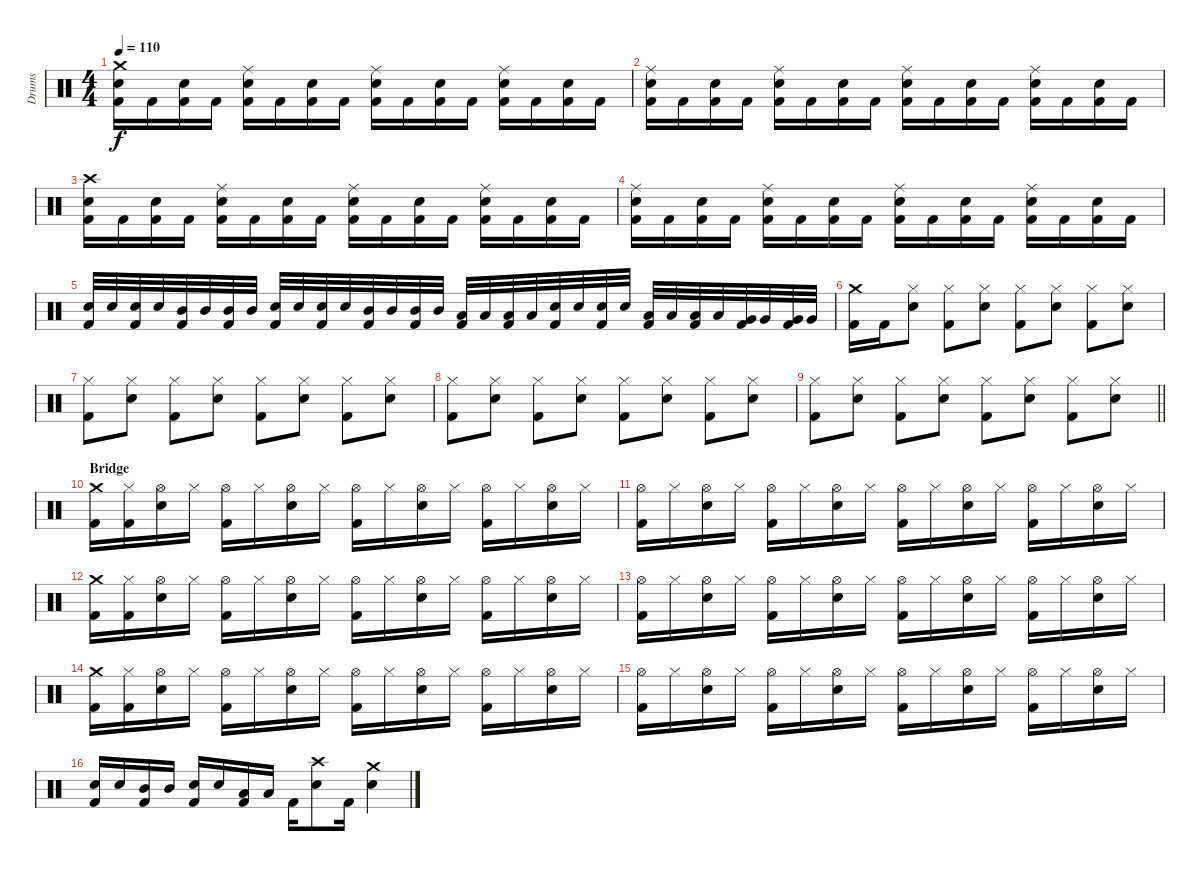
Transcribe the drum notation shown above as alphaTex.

\track ("Drums" "Drums") {instrument percussion}
\staff {score}
\articulation defaults
\ts (4 4)
\tempo 110
\clef neutral
\ks c
("Kick (hit) 2" "Snare (hit) 2" "Crash medium (hit)").16{dy f} "Kick (hit) 2".16 ("Kick (hit) 2" "Snare (hit) 2").16 "Kick (hit) 2".16 ("Kick (hit) 2" "Snare (hit) 2" "Ride (middle)").16 "Kick (hit) 2".16 ("Kick (hit) 2" "Snare (hit) 2").16 "Kick (hit) 2".16 ("Kick (hit) 2" "Snare (hit) 2" "Ride (middle)").16 "Kick (hit) 2".16 ("Kick (hit) 2" "Snare (hit) 2").16 "Kick (hit) 2".16 ("Kick (hit) 2" "Snare (hit) 2" "Ride (middle)").16 "Kick (hit) 2".16 ("Kick (hit) 2" "Snare (hit) 2").16 "Kick (hit) 2".16 |
("Kick (hit) 2" "Snare (hit) 2" "Ride (middle)").16 "Kick (hit) 2".16 ("Kick (hit) 2" "Snare (hit) 2").16 "Kick (hit) 2".16 ("Kick (hit) 2" "Snare (hit) 2" "Ride (middle)").16 "Kick (hit) 2".16 ("Kick (hit) 2" "Snare (hit) 2").16 "Kick (hit) 2".16 ("Kick (hit) 2" "Snare (hit) 2" "Ride (middle)").16 "Kick (hit) 2".16 ("Kick (hit) 2" "Snare (hit) 2").16 "Kick (hit) 2".16 ("Kick (hit) 2" "Snare (hit) 2" "Ride (middle)").16 "Kick (hit) 2".16 ("Kick (hit) 2" "Snare (hit) 2").16 "Kick (hit) 2".16 |
("Kick (hit) 2" "Snare (hit) 2" "Crash high (hit)").16 "Kick (hit) 2".16 ("Kick (hit) 2" "Snare (hit) 2").16 "Kick (hit) 2".16 ("Kick (hit) 2" "Snare (hit) 2" "Ride (middle)").16 "Kick (hit) 2".16 ("Kick (hit) 2" "Snare (hit) 2").16 "Kick (hit) 2".16 ("Kick (hit) 2" "Snare (hit) 2" "Ride (middle)").16 "Kick (hit) 2".16 ("Kick (hit) 2" "Snare (hit) 2").16 "Kick (hit) 2".16 ("Kick (hit) 2" "Snare (hit) 2" "Ride (middle)").16 "Kick (hit) 2".16 ("Kick (hit) 2" "Snare (hit) 2").16 "Kick (hit) 2".16 |
("Kick (hit) 2" "Snare (hit) 2" "Ride (middle)").16 "Kick (hit) 2".16 ("Kick (hit) 2" "Snare (hit) 2").16 "Kick (hit) 2".16 ("Kick (hit) 2" "Snare (hit) 2" "Ride (middle)").16 "Kick (hit) 2".16 ("Kick (hit) 2" "Snare (hit) 2").16 "Kick (hit) 2".16 ("Kick (hit) 2" "Snare (hit) 2" "Ride (middle)").16 "Kick (hit) 2".16 ("Kick (hit) 2" "Snare (hit) 2").16 "Kick (hit) 2".16 ("Kick (hit) 2" "Snare (hit) 2" "Ride (middle)").16 "Kick (hit) 2".16 ("Kick (hit) 2" "Snare (hit) 2").16 "Kick (hit) 2".16 |
("Kick (hit) 2" "Snare (hit) 2").32 "Snare (hit) 2".32 ("Kick (hit) 2" "Snare (hit) 2").32 "Snare (hit) 2".32 ("Kick (hit) 2" "Mid Tom (hit)").32 "Mid Tom (hit)".32 ("Kick (hit) 2" "Mid Tom (hit)").32 "Mid Tom (hit)".32 ("Kick (hit) 2" "Snare (hit) 2").32 "Snare (hit) 2".32 ("Kick (hit) 2" "Snare (hit) 2").32 "Snare (hit) 2".32 ("Kick (hit) 2" "Mid Tom (hit)").32 "Mid Tom (hit)".32 ("Kick (hit) 2" "Mid Tom (hit)").32 "Mid Tom (hit)".32 ("Kick (hit) 2" "Low Tom (hit)").32 "Low Tom (hit)".32 ("Kick (hit) 2" "Low Tom (hit)").32 "Low Tom (hit)".32 ("Kick (hit) 2" "Snare (hit) 2").32 "Snare (hit) 2".32 ("Kick (hit) 2" "Snare (hit) 2").32 "Snare (hit) 2".32 ("Kick (hit) 2" "Low Tom (hit)").32 "Low Tom (hit)".32 ("Kick (hit) 2" "Low Tom (hit)").32 "Low Tom (hit)".32 ("Kick (hit) 2" "Very Low Tom (hit)").32 "Very Low Tom (hit)".32 ("Kick (hit) 2" "Very Low Tom (hit)").32 "Very Low Tom (hit)".32 |
("Kick (hit) 2" "Crash medium (hit)").16 "Kick (hit) 2".16 ("Snare (hit) 2" "Hi-Hat (closed)").8 ("Kick (hit) 2" "Hi-Hat (closed)").8 ("Snare (hit) 2" "Hi-Hat (closed)").8 ("Kick (hit) 2" "Hi-Hat (closed)").8 ("Snare (hit) 2" "Hi-Hat (closed)").8 ("Kick (hit) 2" "Hi-Hat (closed)").8 ("Snare (hit) 2" "Hi-Hat (closed)").8 |
("Kick (hit) 2" "Hi-Hat (closed)").8 ("Snare (hit) 2" "Hi-Hat (closed)").8 ("Kick (hit) 2" "Hi-Hat (closed)").8 ("Snare (hit) 2" "Hi-Hat (closed)").8 ("Kick (hit) 2" "Hi-Hat (closed)").8 ("Snare (hit) 2" "Hi-Hat (closed)").8 ("Kick (hit) 2" "Hi-Hat (closed)").8 ("Snare (hit) 2" "Hi-Hat (closed)").8 |
("Kick (hit) 2" "Hi-Hat (closed)").8 ("Snare (hit) 2" "Hi-Hat (closed)").8 ("Kick (hit) 2" "Hi-Hat (closed)").8 ("Snare (hit) 2" "Hi-Hat (closed)").8 ("Kick (hit) 2" "Hi-Hat (closed)").8 ("Snare (hit) 2" "Hi-Hat (closed)").8 ("Kick (hit) 2" "Hi-Hat (closed)").8 ("Snare (hit) 2" "Hi-Hat (closed)").8 |
\barLineRight lightlight
("Kick (hit) 2" "Hi-Hat (closed)").8 ("Snare (hit) 2" "Hi-Hat (closed)").8 ("Kick (hit) 2" "Hi-Hat (closed)").8 ("Snare (hit) 2" "Hi-Hat (closed)").8 ("Kick (hit) 2" "Hi-Hat (closed)").8 ("Snare (hit) 2" "Hi-Hat (closed)").8 ("Kick (hit) 2" "Hi-Hat (closed)").8 ("Snare (hit) 2" "Hi-Hat (closed)").8 |
\section ("" "Bridge")
("Kick (hit) 2" "Crash medium (hit)").16 ("Kick (hit) 2" "Hi-Hat (closed)").16 ("Snare (hit) 2" "Hi-Hat (open)").16 "Hi-Hat (closed)".16 ("Kick (hit) 2" "Hi-Hat (open)").16 "Hi-Hat (closed)".16 ("Snare (hit) 2" "Hi-Hat (open)").16 "Hi-Hat (closed)".16 ("Kick (hit) 2" "Hi-Hat (open)").16 "Hi-Hat (closed)".16 ("Snare (hit) 2" "Hi-Hat (open)").16 "Hi-Hat (closed)".16 ("Kick (hit) 2" "Hi-Hat (open)").16 "Hi-Hat (closed)".16 ("Snare (hit) 2" "Hi-Hat (open)").16 "Hi-Hat (closed)".16 |
("Kick (hit) 2" "Hi-Hat (open)").16 "Hi-Hat (closed)".16 ("Snare (hit) 2" "Hi-Hat (open)").16 "Hi-Hat (closed)".16 ("Kick (hit) 2" "Hi-Hat (open)").16 "Hi-Hat (closed)".16 ("Snare (hit) 2" "Hi-Hat (open)").16 "Hi-Hat (closed)".16 ("Kick (hit) 2" "Hi-Hat (open)").16 "Hi-Hat (closed)".16 ("Snare (hit) 2" "Hi-Hat (open)").16 "Hi-Hat (closed)".16 ("Kick (hit) 2" "Hi-Hat (open)").16 "Hi-Hat (closed)".16 ("Snare (hit) 2" "Hi-Hat (open)").16 "Hi-Hat (closed)".16 |
("Kick (hit) 2" "Crash medium (hit)").16 ("Kick (hit) 2" "Hi-Hat (closed)").16 ("Snare (hit) 2" "Hi-Hat (open)").16 "Hi-Hat (closed)".16 ("Kick (hit) 2" "Hi-Hat (open)").16 "Hi-Hat (closed)".16 ("Snare (hit) 2" "Hi-Hat (open)").16 "Hi-Hat (closed)".16 ("Kick (hit) 2" "Hi-Hat (open)").16 "Hi-Hat (closed)".16 ("Snare (hit) 2" "Hi-Hat (open)").16 "Hi-Hat (closed)".16 ("Kick (hit) 2" "Hi-Hat (open)").16 "Hi-Hat (closed)".16 ("Snare (hit) 2" "Hi-Hat (open)").16 "Hi-Hat (closed)".16 |
("Kick (hit) 2" "Hi-Hat (open)").16 "Hi-Hat (closed)".16 ("Snare (hit) 2" "Hi-Hat (open)").16 "Hi-Hat (closed)".16 ("Kick (hit) 2" "Hi-Hat (open)").16 "Hi-Hat (closed)".16 ("Snare (hit) 2" "Hi-Hat (open)").16 "Hi-Hat (closed)".16 ("Kick (hit) 2" "Hi-Hat (open)").16 "Hi-Hat (closed)".16 ("Snare (hit) 2" "Hi-Hat (open)").16 "Hi-Hat (closed)".16 ("Kick (hit) 2" "Hi-Hat (open)").16 "Hi-Hat (closed)".16 ("Snare (hit) 2" "Hi-Hat (open)").16 "Hi-Hat (closed)".16 |
("Kick (hit) 2" "Crash medium (hit)").16 ("Kick (hit) 2" "Hi-Hat (closed)").16 ("Snare (hit) 2" "Hi-Hat (open)").16 "Hi-Hat (closed)".16 ("Kick (hit) 2" "Hi-Hat (open)").16 "Hi-Hat (closed)".16 ("Snare (hit) 2" "Hi-Hat (open)").16 "Hi-Hat (closed)".16 ("Kick (hit) 2" "Hi-Hat (open)").16 "Hi-Hat (closed)".16 ("Snare (hit) 2" "Hi-Hat (open)").16 "Hi-Hat (closed)".16 ("Kick (hit) 2" "Hi-Hat (open)").16 "Hi-Hat (closed)".16 ("Snare (hit) 2" "Hi-Hat (open)").16 "Hi-Hat (closed)".16 |
("Kick (hit) 2" "Hi-Hat (open)").16 "Hi-Hat (closed)".16 ("Snare (hit) 2" "Hi-Hat (open)").16 "Hi-Hat (closed)".16 ("Kick (hit) 2" "Hi-Hat (open)").16 "Hi-Hat (closed)".16 ("Snare (hit) 2" "Hi-Hat (open)").16 "Hi-Hat (closed)".16 ("Kick (hit) 2" "Hi-Hat (open)").16 "Hi-Hat (closed)".16 ("Snare (hit) 2" "Hi-Hat (open)").16 "Hi-Hat (closed)".16 ("Kick (hit) 2" "Hi-Hat (open)").16 "Hi-Hat (closed)".16 ("Snare (hit) 2" "Hi-Hat (open)").16 "Hi-Hat (closed)".16 |
("Kick (hit) 2" "Snare (hit) 2").16 "Snare (hit) 2".16 ("Kick (hit) 2" "Mid Tom (hit)").16 "Mid Tom (hit)".16 ("Kick (hit) 2" "Snare (hit) 2").16 "Snare (hit) 2".16 ("Kick (hit) 2" "Low Tom (hit)").16 "Low Tom (hit)".16 "Kick (hit) 2".16 ("Snare (hit) 2" "Crash high (hit)").8 "Kick (hit) 2".16 ("Snare (hit) 2" "Crash medium (hit)").4
